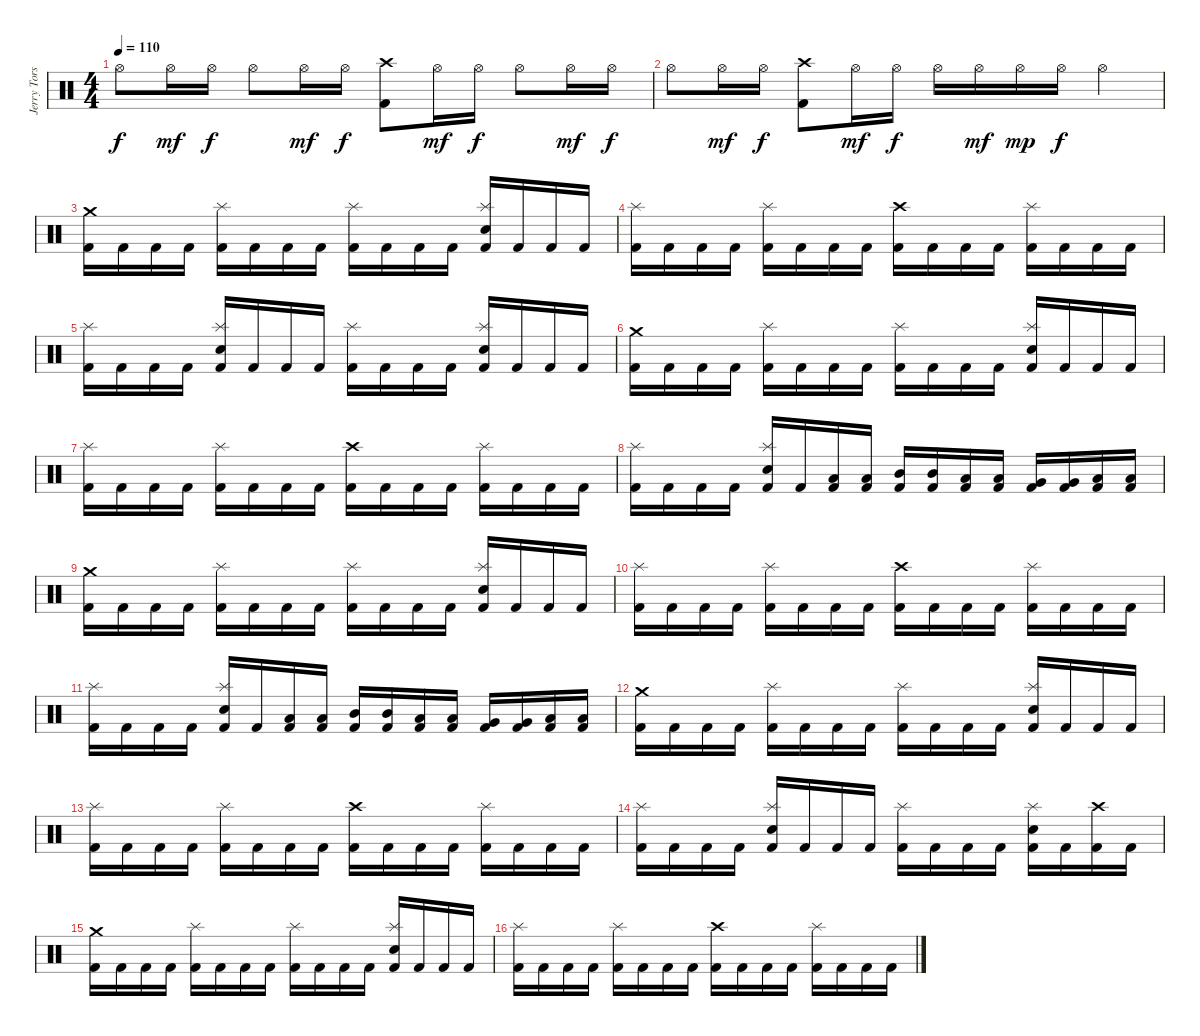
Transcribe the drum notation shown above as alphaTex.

\track ("Jerry Torstensson" "Jerry Tors") {instrument percussion}
\staff {score}
\articulation defaults
\ts (4 4)
\tempo 110
\clef neutral
\ks c "Hi-Hat (open)".8{dy f} "Hi-Hat (open)".16{dy mf} "Hi-Hat (open)".16{dy f} "Hi-Hat (open)".8 "Hi-Hat (open)".16{dy mf} "Hi-Hat (open)".16{dy f}
("Crash high (hit)" "Kick (hit) 2").8 "Hi-Hat (open)".16{dy mf} "Hi-Hat (open)".16{dy f} "Hi-Hat (open)".8 "Hi-Hat (open)".16{dy mf} "Hi-Hat (open)".16{dy f} |
"Hi-Hat (open)".8 "Hi-Hat (open)".16{dy mf} "Hi-Hat (open)".16{dy f} ("Crash high (hit)" "Kick (hit) 2").8 "Hi-Hat (open)".16{dy mf} "Hi-Hat (open)".16{dy f} "Hi-Hat (open)".16 "Hi-Hat (open)".16{dy mf} "Hi-Hat (open)".16{dy mp} "Hi-Hat (open)".16{dy f} "Hi-Hat (open)".4 |
("Crash medium (hit)" "Kick (hit) 2").16 "Kick (hit) 2".16 "Kick (hit) 2".16 "Kick (hit) 2".16 ("Splash (hit)" "Kick (hit) 2").16 "Kick (hit) 2".16 "Kick (hit) 2".16 "Kick (hit) 2".16 ("Splash (hit)" "Kick (hit) 2").16 "Kick (hit) 2".16 "Kick (hit) 2".16 "Kick (hit) 2".16 ("Splash (hit)" "Electric Snare (hit)" "Kick (hit) 2").16 "Kick (hit) 2".16 "Kick (hit) 2".16 "Kick (hit) 2".16 |
("Splash (hit)" "Kick (hit) 2").16 "Kick (hit) 2".16 "Kick (hit) 2".16 "Kick (hit) 2".16 ("Splash (hit)" "Kick (hit) 2").16 "Kick (hit) 2".16 "Kick (hit) 2".16 "Kick (hit) 2".16 ("Crash high (hit)" "Kick (hit) 2").16 "Kick (hit) 2".16 "Kick (hit) 2".16 "Kick (hit) 2".16 ("Splash (hit)" "Kick (hit) 2").16 "Kick (hit) 2".16 "Kick (hit) 2".16 "Kick (hit) 2".16 |
("Splash (hit)" "Kick (hit) 2").16 "Kick (hit) 2".16 "Kick (hit) 2".16 "Kick (hit) 2".16 ("Splash (hit)" "Electric Snare (hit)" "Kick (hit) 2").16 "Kick (hit) 2".16 "Kick (hit) 2".16 "Kick (hit) 2".16 ("Splash (hit)" "Kick (hit) 2").16 "Kick (hit) 2".16 "Kick (hit) 2".16 "Kick (hit) 2".16 ("Splash (hit)" "Electric Snare (hit)" "Kick (hit) 2").16 "Kick (hit) 2".16 "Kick (hit) 2".16 "Kick (hit) 2".16 |
("Crash medium (hit)" "Kick (hit) 2").16 "Kick (hit) 2".16 "Kick (hit) 2".16 "Kick (hit) 2".16 ("Splash (hit)" "Kick (hit) 2").16 "Kick (hit) 2".16 "Kick (hit) 2".16 "Kick (hit) 2".16 ("Splash (hit)" "Kick (hit) 2").16 "Kick (hit) 2".16 "Kick (hit) 2".16 "Kick (hit) 2".16 ("Splash (hit)" "Electric Snare (hit)" "Kick (hit) 2").16 "Kick (hit) 2".16 "Kick (hit) 2".16 "Kick (hit) 2".16 |
("Splash (hit)" "Kick (hit) 2").16 "Kick (hit) 2".16 "Kick (hit) 2".16 "Kick (hit) 2".16 ("Splash (hit)" "Kick (hit) 2").16 "Kick (hit) 2".16 "Kick (hit) 2".16 "Kick (hit) 2".16 ("Crash high (hit)" "Kick (hit) 2").16 "Kick (hit) 2".16 "Kick (hit) 2".16 "Kick (hit) 2".16 ("Splash (hit)" "Kick (hit) 2").16 "Kick (hit) 2".16 "Kick (hit) 2".16 "Kick (hit) 2".16 |
("Splash (hit)" "Kick (hit) 2").16 "Kick (hit) 2".16 "Kick (hit) 2".16 "Kick (hit) 2".16 ("Splash (hit)" "Electric Snare (hit)" "Kick (hit) 2").16 "Kick (hit) 2".16 ("Low Tom (hit)" "Kick (hit) 2").16 ("Low Tom (hit)" "Kick (hit) 2").16 ("Mid Tom (hit)" "Kick (hit) 2").16 ("Mid Tom (hit)" "Kick (hit) 2").16 ("Low Tom (hit)" "Kick (hit) 2").16 ("Low Tom (hit)" "Kick (hit) 2").16 ("Very Low Tom (hit)" "Kick (hit) 2").16 ("Very Low Tom (hit)" "Kick (hit) 2").16 ("Low Floor Tom (hit)" "Kick (hit) 2").16 ("Low Floor Tom (hit)" "Kick (hit) 2").16 |
("Crash medium (hit)" "Kick (hit) 2").16 "Kick (hit) 2".16 "Kick (hit) 2".16 "Kick (hit) 2".16 ("Splash (hit)" "Kick (hit) 2").16 "Kick (hit) 2".16 "Kick (hit) 2".16 "Kick (hit) 2".16 ("Splash (hit)" "Kick (hit) 2").16 "Kick (hit) 2".16 "Kick (hit) 2".16 "Kick (hit) 2".16 ("Splash (hit)" "Electric Snare (hit)" "Kick (hit) 2").16 "Kick (hit) 2".16 "Kick (hit) 2".16 "Kick (hit) 2".16 |
("Splash (hit)" "Kick (hit) 2").16 "Kick (hit) 2".16 "Kick (hit) 2".16 "Kick (hit) 2".16 ("Splash (hit)" "Kick (hit) 2").16 "Kick (hit) 2".16 "Kick (hit) 2".16 "Kick (hit) 2".16 ("Crash high (hit)" "Kick (hit) 2").16 "Kick (hit) 2".16 "Kick (hit) 2".16 "Kick (hit) 2".16 ("Splash (hit)" "Kick (hit) 2").16 "Kick (hit) 2".16 "Kick (hit) 2".16 "Kick (hit) 2".16 |
("Splash (hit)" "Kick (hit) 2").16 "Kick (hit) 2".16 "Kick (hit) 2".16 "Kick (hit) 2".16 ("Splash (hit)" "Electric Snare (hit)" "Kick (hit) 2").16 "Kick (hit) 2".16 ("Low Tom (hit)" "Kick (hit) 2").16 ("Low Tom (hit)" "Kick (hit) 2").16 ("Mid Tom (hit)" "Kick (hit) 2").16 ("Mid Tom (hit)" "Kick (hit) 2").16 ("Low Tom (hit)" "Kick (hit) 2").16 ("Low Tom (hit)" "Kick (hit) 2").16 ("Very Low Tom (hit)" "Kick (hit) 2").16 ("Very Low Tom (hit)" "Kick (hit) 2").16 ("Low Floor Tom (hit)" "Kick (hit) 2").16 ("Low Floor Tom (hit)" "Kick (hit) 2").16 |
("Crash medium (hit)" "Kick (hit) 2").16 "Kick (hit) 2".16 "Kick (hit) 2".16 "Kick (hit) 2".16 ("Splash (hit)" "Kick (hit) 2").16 "Kick (hit) 2".16 "Kick (hit) 2".16 "Kick (hit) 2".16 ("Splash (hit)" "Kick (hit) 2").16 "Kick (hit) 2".16 "Kick (hit) 2".16 "Kick (hit) 2".16 ("Splash (hit)" "Electric Snare (hit)" "Kick (hit) 2").16 "Kick (hit) 2".16 "Kick (hit) 2".16 "Kick (hit) 2".16 |
("Splash (hit)" "Kick (hit) 2").16 "Kick (hit) 2".16 "Kick (hit) 2".16 "Kick (hit) 2".16 ("Splash (hit)" "Kick (hit) 2").16 "Kick (hit) 2".16 "Kick (hit) 2".16 "Kick (hit) 2".16 ("Crash high (hit)" "Kick (hit) 2").16 "Kick (hit) 2".16 "Kick (hit) 2".16 "Kick (hit) 2".16 ("Splash (hit)" "Kick (hit) 2").16 "Kick (hit) 2".16 "Kick (hit) 2".16 "Kick (hit) 2".16 |
("Splash (hit)" "Kick (hit) 2").16 "Kick (hit) 2".16 "Kick (hit) 2".16 "Kick (hit) 2".16 ("Splash (hit)" "Electric Snare (hit)" "Kick (hit) 2").16 "Kick (hit) 2".16 "Kick (hit) 2".16 "Kick (hit) 2".16 ("Splash (hit)" "Kick (hit) 2").16 "Kick (hit) 2".16 "Kick (hit) 2".16 "Kick (hit) 2".16 ("Splash (hit)" "Electric Snare (hit)" "Kick (hit) 2").16 "Kick (hit) 2".16 ("Crash high (hit)" "Kick (hit) 2").16 "Kick (hit) 2".16 |
("Crash medium (hit)" "Kick (hit) 2").16 "Kick (hit) 2".16 "Kick (hit) 2".16 "Kick (hit) 2".16 ("Splash (hit)" "Kick (hit) 2").16 "Kick (hit) 2".16 "Kick (hit) 2".16 "Kick (hit) 2".16 ("Splash (hit)" "Kick (hit) 2").16 "Kick (hit) 2".16 "Kick (hit) 2".16 "Kick (hit) 2".16 ("Splash (hit)" "Electric Snare (hit)" "Kick (hit) 2").16 "Kick (hit) 2".16 "Kick (hit) 2".16 "Kick (hit) 2".16 |
("Splash (hit)" "Kick (hit) 2").16 "Kick (hit) 2".16 "Kick (hit) 2".16 "Kick (hit) 2".16 ("Splash (hit)" "Kick (hit) 2").16 "Kick (hit) 2".16 "Kick (hit) 2".16 "Kick (hit) 2".16 ("Crash high (hit)" "Kick (hit) 2").16 "Kick (hit) 2".16 "Kick (hit) 2".16 "Kick (hit) 2".16 ("Splash (hit)" "Kick (hit) 2").16 "Kick (hit) 2".16 "Kick (hit) 2".16 "Kick (hit) 2".16
